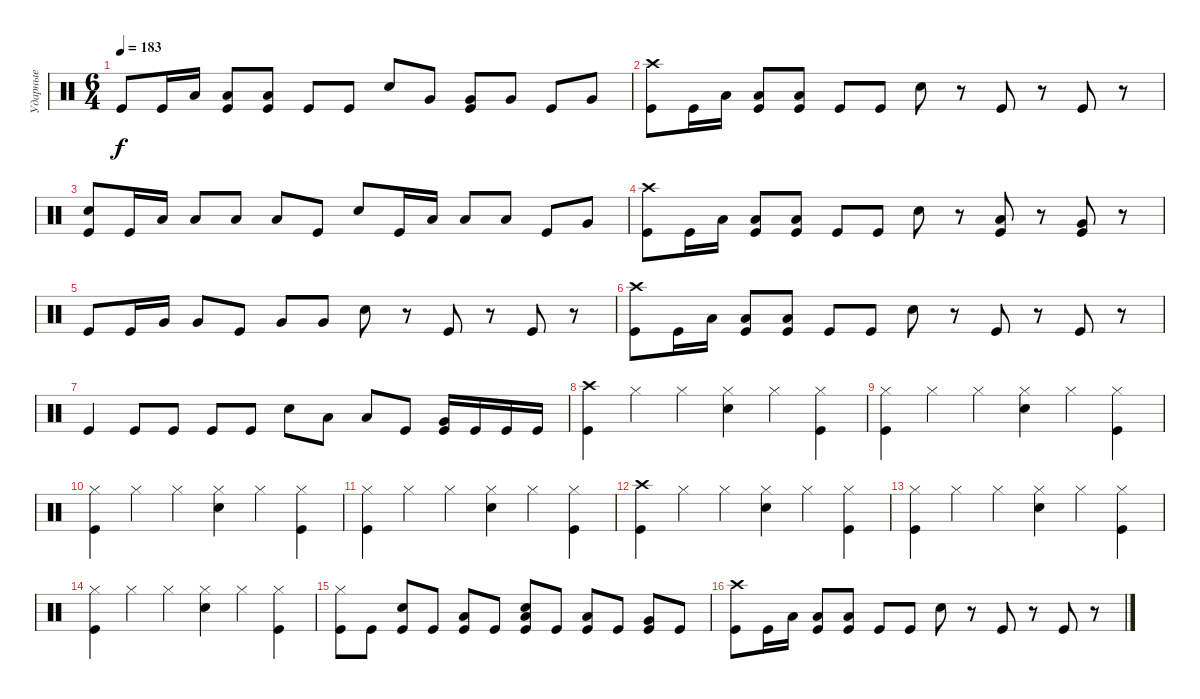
\track ("Ударные" "Ударные") {instrument percussion}
\staff {score}
\articulation defaults
\ts (6 4)
\tempo 183
\clef neutral
\ks c "Kick (hit)".8{dy f} "Kick (hit)".16 "Low Tom (hit)".16
("Low Tom (hit)" "Kick (hit)").8 ("Low Tom (hit)" "Kick (hit)").8 "Kick (hit)".8 "Kick (hit)".8 "Electric Snare (hit)".8 "Very Low Tom (hit)".8 ("Very Low Tom (hit)" "Kick (hit)").8 "Very Low Tom (hit)".8 "Kick (hit)".8 "Very Low Tom (hit)".8 |
("Crash high (hit)" "Kick (hit)").8 "Kick (hit)".16 "Low Tom (hit)".16 ("Low Tom (hit)" "Kick (hit)").8 ("Low Tom (hit)" "Kick (hit)").8 "Kick (hit)".8 "Kick (hit)".8 "Electric Snare (hit)".8 r.8 "Kick (hit)".8 r.8 "Kick (hit)".8 r.8 |
("Electric Snare (hit)" "Kick (hit)").8 "Kick (hit)".16 "Low Tom (hit)".16 "Low Tom (hit)".8 "Low Tom (hit)".8 "Low Tom (hit)".8 "Kick (hit)".8 "Electric Snare (hit)".8 "Kick (hit)".16 "Low Tom (hit)".16 "Low Tom (hit)".8 "Low Tom (hit)".8 "Kick (hit)".8 "Very Low Tom (hit)".8 |
("Crash high (hit)" "Kick (hit)").8 "Kick (hit)".16 "Low Tom (hit)".16 ("Low Tom (hit)" "Kick (hit)").8 ("Low Tom (hit)" "Kick (hit)").8 "Kick (hit)".8 "Kick (hit)".8 "Electric Snare (hit)".8 r.8 ("Low Tom (hit)" "Kick (hit)").8 r.8 ("Very Low Tom (hit)" "Kick (hit)").8 r.8 |
"Kick (hit)".8 "Kick (hit)".16 "Very Low Tom (hit)".16 "Very Low Tom (hit)".8 "Kick (hit)".8 "Very Low Tom (hit)".8 "Very Low Tom (hit)".8 "Electric Snare (hit)".8 r.8 "Kick (hit)".8 r.8 "Kick (hit)".8 r.8 |
("Crash high (hit)" "Kick (hit)").8 "Kick (hit)".16 "Low Tom (hit)".16 ("Low Tom (hit)" "Kick (hit)").8 ("Low Tom (hit)" "Kick (hit)").8 "Kick (hit)".8 "Kick (hit)".8 "Electric Snare (hit)".8 r.8 "Kick (hit)".8 r.8 "Kick (hit)".8 r.8 |
"Kick (hit)".4 "Kick (hit)".8 "Kick (hit)".8 "Kick (hit)".8 "Kick (hit)".8 "Electric Snare (hit)".8 "Low Tom (hit)".8 "Low Tom (hit)".8 "Kick (hit)".8 ("Very Low Tom (hit)" "Kick (hit)").16 "Kick (hit)".16 "Kick (hit)".16 "Kick (hit)".16 |
("Crash high (hit)" "Kick (hit)").4 "Hi-Hat (closed)".4 "Hi-Hat (closed)".4 ("Hi-Hat (closed)" "Electric Snare (hit)").4 "Hi-Hat (closed)".4 ("Hi-Hat (closed)" "Kick (hit)").4 |
("Hi-Hat (closed)" "Kick (hit)").4 "Hi-Hat (closed)".4 "Hi-Hat (closed)".4 ("Hi-Hat (closed)" "Electric Snare (hit)").4 "Hi-Hat (closed)".4 ("Hi-Hat (closed)" "Kick (hit)").4 |
("Hi-Hat (closed)" "Kick (hit)").4 "Hi-Hat (closed)".4 "Hi-Hat (closed)".4 ("Hi-Hat (closed)" "Electric Snare (hit)").4 "Hi-Hat (closed)".4 ("Hi-Hat (closed)" "Kick (hit)").4 |
("Hi-Hat (closed)" "Kick (hit)").4 "Hi-Hat (closed)".4 "Hi-Hat (closed)".4 ("Hi-Hat (closed)" "Electric Snare (hit)").4 "Hi-Hat (closed)".4 ("Hi-Hat (closed)" "Kick (hit)").4 |
("Crash high (hit)" "Kick (hit)").4 "Hi-Hat (closed)".4 "Hi-Hat (closed)".4 ("Hi-Hat (closed)" "Electric Snare (hit)").4 "Hi-Hat (closed)".4 ("Hi-Hat (closed)" "Kick (hit)").4 |
("Hi-Hat (closed)" "Kick (hit)").4 "Hi-Hat (closed)".4 "Hi-Hat (closed)".4 ("Hi-Hat (closed)" "Electric Snare (hit)").4 "Hi-Hat (closed)".4 ("Hi-Hat (closed)" "Kick (hit)").4 |
("Hi-Hat (closed)" "Kick (hit)").4 "Hi-Hat (closed)".4 "Hi-Hat (closed)".4 ("Hi-Hat (closed)" "Electric Snare (hit)").4 "Hi-Hat (closed)".4 ("Hi-Hat (closed)" "Kick (hit)").4 |
("Hi-Hat (closed)" "Kick (hit)").8 "Kick (hit)".8 ("Electric Snare (hit)" "Kick (hit)").8 "Kick (hit)".8 ("Low Tom (hit)" "Kick (hit)").8 "Kick (hit)".8 ("Low Tom (hit)" "Electric Snare (hit)" "Kick (hit)").8 "Kick (hit)".8 ("Low Tom (hit)" "Kick (hit)").8 "Kick (hit)".8 ("Very Low Tom (hit)" "Kick (hit)").8 "Kick (hit)".8 |
("Crash high (hit)" "Kick (hit)").8 "Kick (hit)".16 "Low Tom (hit)".16 ("Low Tom (hit)" "Kick (hit)").8 ("Low Tom (hit)" "Kick (hit)").8 "Kick (hit)".8 "Kick (hit)".8 "Electric Snare (hit)".8 r.8 "Kick (hit)".8 r.8 "Kick (hit)".8 r.8
